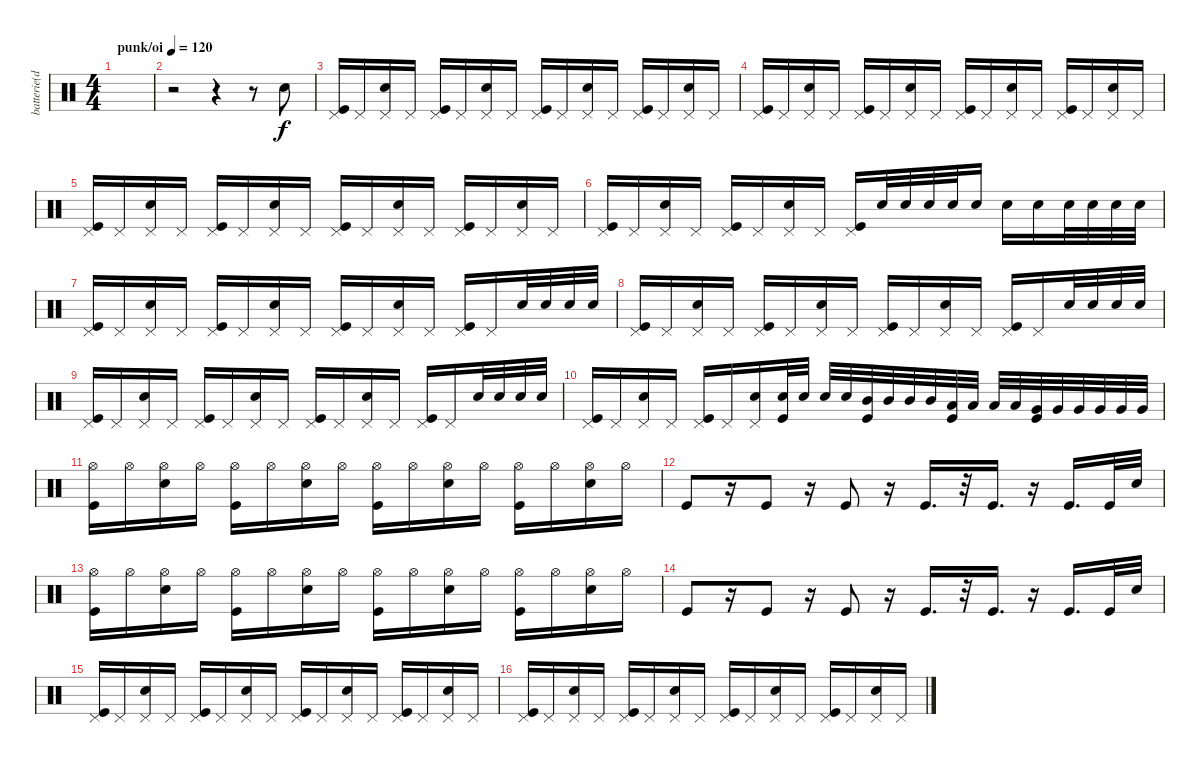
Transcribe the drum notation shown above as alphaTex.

\track ("batterie(dru)" "batterie(d") {instrument percussion}
\staff {score}
\articulation defaults
\ts (4 4)
\tempo (120 "punk/oi")
\clef neutral
\ks c
|
r.2 r.4 r.8 "Snare (hit) 2".8 |
("Pedal Hi-Hat (hit)" "Kick (hit)").16 "Pedal Hi-Hat (hit)".16 ("Pedal Hi-Hat (hit)" "Snare (hit) 2").16 "Pedal Hi-Hat (hit)".16 ("Pedal Hi-Hat (hit)" "Kick (hit)").16 "Pedal Hi-Hat (hit)".16 ("Pedal Hi-Hat (hit)" "Snare (hit) 2").16 "Pedal Hi-Hat (hit)".16 ("Pedal Hi-Hat (hit)" "Kick (hit)").16 "Pedal Hi-Hat (hit)".16 ("Pedal Hi-Hat (hit)" "Snare (hit) 2").16 "Pedal Hi-Hat (hit)".16 ("Pedal Hi-Hat (hit)" "Kick (hit)").16 "Pedal Hi-Hat (hit)".16 ("Pedal Hi-Hat (hit)" "Snare (hit) 2").16 "Pedal Hi-Hat (hit)".16 |
("Pedal Hi-Hat (hit)" "Kick (hit)").16 "Pedal Hi-Hat (hit)".16 ("Pedal Hi-Hat (hit)" "Snare (hit) 2").16 "Pedal Hi-Hat (hit)".16 ("Pedal Hi-Hat (hit)" "Kick (hit)").16 "Pedal Hi-Hat (hit)".16 ("Pedal Hi-Hat (hit)" "Snare (hit) 2").16 "Pedal Hi-Hat (hit)".16 ("Pedal Hi-Hat (hit)" "Kick (hit)").16 "Pedal Hi-Hat (hit)".16 ("Pedal Hi-Hat (hit)" "Snare (hit) 2").16 "Pedal Hi-Hat (hit)".16 ("Pedal Hi-Hat (hit)" "Kick (hit)").16 "Pedal Hi-Hat (hit)".16 ("Pedal Hi-Hat (hit)" "Snare (hit) 2").16 "Pedal Hi-Hat (hit)".16 |
("Pedal Hi-Hat (hit)" "Kick (hit)").16 "Pedal Hi-Hat (hit)".16 ("Pedal Hi-Hat (hit)" "Snare (hit) 2").16 "Pedal Hi-Hat (hit)".16 ("Pedal Hi-Hat (hit)" "Kick (hit)").16 "Pedal Hi-Hat (hit)".16 ("Pedal Hi-Hat (hit)" "Snare (hit) 2").16 "Pedal Hi-Hat (hit)".16 ("Pedal Hi-Hat (hit)" "Kick (hit)").16 "Pedal Hi-Hat (hit)".16 ("Pedal Hi-Hat (hit)" "Snare (hit) 2").16 "Pedal Hi-Hat (hit)".16 ("Pedal Hi-Hat (hit)" "Kick (hit)").16 "Pedal Hi-Hat (hit)".16 ("Pedal Hi-Hat (hit)" "Snare (hit) 2").16 "Pedal Hi-Hat (hit)".16 |
("Pedal Hi-Hat (hit)" "Kick (hit)").16 "Pedal Hi-Hat (hit)".16 ("Pedal Hi-Hat (hit)" "Snare (hit) 2").16 "Pedal Hi-Hat (hit)".16 ("Pedal Hi-Hat (hit)" "Kick (hit)").16 "Pedal Hi-Hat (hit)".16 ("Pedal Hi-Hat (hit)" "Snare (hit) 2").16 "Pedal Hi-Hat (hit)".16 ("Pedal Hi-Hat (hit)" "Kick (hit)").16 "Snare (hit) 2".32 "Snare (hit) 2".32 "Snare (hit) 2".32 "Snare (hit) 2".32 "Snare (hit) 2".16 "Snare (hit) 2".16 "Snare (hit) 2".16 "Snare (hit) 2".32 "Snare (hit) 2".32 "Snare (hit) 2".32 "Snare (hit) 2".32 |
("Pedal Hi-Hat (hit)" "Kick (hit)").16 "Pedal Hi-Hat (hit)".16 ("Pedal Hi-Hat (hit)" "Snare (hit) 2").16 "Pedal Hi-Hat (hit)".16 ("Pedal Hi-Hat (hit)" "Kick (hit)").16 "Pedal Hi-Hat (hit)".16 ("Pedal Hi-Hat (hit)" "Snare (hit) 2").16 "Pedal Hi-Hat (hit)".16 ("Pedal Hi-Hat (hit)" "Kick (hit)").16 "Pedal Hi-Hat (hit)".16 ("Pedal Hi-Hat (hit)" "Snare (hit) 2").16 "Pedal Hi-Hat (hit)".16 ("Pedal Hi-Hat (hit)" "Kick (hit)").16 "Pedal Hi-Hat (hit)".16 "Snare (hit) 2".32 "Snare (hit) 2".32 "Snare (hit) 2".32 "Snare (hit) 2".32 |
("Pedal Hi-Hat (hit)" "Kick (hit)").16 "Pedal Hi-Hat (hit)".16 ("Pedal Hi-Hat (hit)" "Snare (hit) 2").16 "Pedal Hi-Hat (hit)".16 ("Pedal Hi-Hat (hit)" "Kick (hit)").16 "Pedal Hi-Hat (hit)".16 ("Pedal Hi-Hat (hit)" "Snare (hit) 2").16 "Pedal Hi-Hat (hit)".16 ("Pedal Hi-Hat (hit)" "Kick (hit)").16 "Pedal Hi-Hat (hit)".16 ("Pedal Hi-Hat (hit)" "Snare (hit) 2").16 "Pedal Hi-Hat (hit)".16 ("Pedal Hi-Hat (hit)" "Kick (hit)").16 "Pedal Hi-Hat (hit)".16 "Snare (hit) 2".32 "Snare (hit) 2".32 "Snare (hit) 2".32 "Snare (hit) 2".32 |
("Pedal Hi-Hat (hit)" "Kick (hit)").16 "Pedal Hi-Hat (hit)".16 ("Pedal Hi-Hat (hit)" "Snare (hit) 2").16 "Pedal Hi-Hat (hit)".16 ("Pedal Hi-Hat (hit)" "Kick (hit)").16 "Pedal Hi-Hat (hit)".16 ("Pedal Hi-Hat (hit)" "Snare (hit) 2").16 "Pedal Hi-Hat (hit)".16 ("Pedal Hi-Hat (hit)" "Kick (hit)").16 "Pedal Hi-Hat (hit)".16 ("Pedal Hi-Hat (hit)" "Snare (hit) 2").16 "Pedal Hi-Hat (hit)".16 ("Pedal Hi-Hat (hit)" "Kick (hit)").16 "Pedal Hi-Hat (hit)".16 "Snare (hit) 2".32 "Snare (hit) 2".32 "Snare (hit) 2".32 "Snare (hit) 2".32 |
("Pedal Hi-Hat (hit)" "Kick (hit)").16 "Pedal Hi-Hat (hit)".16 ("Pedal Hi-Hat (hit)" "Snare (hit) 2").16 "Pedal Hi-Hat (hit)".16 ("Pedal Hi-Hat (hit)" "Kick (hit)").16 "Pedal Hi-Hat (hit)".16 ("Pedal Hi-Hat (hit)" "Snare (hit) 2").16 ("Electric Snare (hit)" "Kick (hit)").32 "Electric Snare (hit)".32 "Electric Snare (hit)".32 "Electric Snare (hit)".32 ("Mid Tom (hit)" "Kick (hit)").32 "Mid Tom (hit)".32 "Mid Tom (hit)".32 "Mid Tom (hit)".32 ("Low Tom (hit)" "Kick (hit)").32 "Low Tom (hit)".32 "Low Tom (hit)".32 "Low Tom (hit)".32 ("Very Low Tom (hit)" "Kick (hit)").32 "Very Low Tom (hit)".32 "Very Low Tom (hit)".32 "Very Low Tom (hit)".32 "Very Low Tom (hit)".32 "Very Low Tom (hit)".32 |
("Hi-Hat (open)" "Kick (hit)").16 "Hi-Hat (open)".16 ("Hi-Hat (open)" "Snare (hit) 2").16 "Hi-Hat (open)".16 ("Hi-Hat (open)" "Kick (hit)").16 "Hi-Hat (open)".16 ("Hi-Hat (open)" "Snare (hit) 2").16 "Hi-Hat (open)".16 ("Hi-Hat (open)" "Kick (hit)").16 "Hi-Hat (open)".16 ("Hi-Hat (open)" "Snare (hit) 2").16 "Hi-Hat (open)".16 ("Hi-Hat (open)" "Kick (hit)").16 "Hi-Hat (open)".16 ("Hi-Hat (open)" "Snare (hit) 2").16 "Hi-Hat (open)".16 |
"Kick (hit)".8 r.16 "Kick (hit)".8 r.16 "Kick (hit)".8 r.16 "Kick (hit)".16{d} r.32 "Kick (hit)".16{d} r.16 "Kick (hit)".16{d} "Kick (hit)".32 "Snare (hit) 2".32 |
("Hi-Hat (open)" "Kick (hit)").16 "Hi-Hat (open)".16 ("Hi-Hat (open)" "Snare (hit) 2").16 "Hi-Hat (open)".16 ("Hi-Hat (open)" "Kick (hit)").16 "Hi-Hat (open)".16 ("Hi-Hat (open)" "Snare (hit) 2").16 "Hi-Hat (open)".16 ("Hi-Hat (open)" "Kick (hit)").16 "Hi-Hat (open)".16 ("Hi-Hat (open)" "Snare (hit) 2").16 "Hi-Hat (open)".16 ("Hi-Hat (open)" "Kick (hit)").16 "Hi-Hat (open)".16 ("Hi-Hat (open)" "Snare (hit) 2").16 "Hi-Hat (open)".16 |
"Kick (hit)".8 r.16 "Kick (hit)".8 r.16 "Kick (hit)".8 r.16 "Kick (hit)".16{d} r.32 "Kick (hit)".16{d} r.16 "Kick (hit)".16{d} "Kick (hit)".32 "Snare (hit) 2".32 |
("Pedal Hi-Hat (hit)" "Kick (hit)").16 "Pedal Hi-Hat (hit)".16 ("Pedal Hi-Hat (hit)" "Snare (hit) 2").16 "Pedal Hi-Hat (hit)".16 ("Pedal Hi-Hat (hit)" "Kick (hit)").16 "Pedal Hi-Hat (hit)".16 ("Pedal Hi-Hat (hit)" "Snare (hit) 2").16 "Pedal Hi-Hat (hit)".16 ("Pedal Hi-Hat (hit)" "Kick (hit)").16 "Pedal Hi-Hat (hit)".16 ("Pedal Hi-Hat (hit)" "Snare (hit) 2").16 "Pedal Hi-Hat (hit)".16 ("Pedal Hi-Hat (hit)" "Kick (hit)").16 "Pedal Hi-Hat (hit)".16 ("Pedal Hi-Hat (hit)" "Snare (hit) 2").16 "Pedal Hi-Hat (hit)".16 |
("Pedal Hi-Hat (hit)" "Kick (hit)").16 "Pedal Hi-Hat (hit)".16 ("Pedal Hi-Hat (hit)" "Snare (hit) 2").16 "Pedal Hi-Hat (hit)".16 ("Pedal Hi-Hat (hit)" "Kick (hit)").16 "Pedal Hi-Hat (hit)".16 ("Pedal Hi-Hat (hit)" "Snare (hit) 2").16 "Pedal Hi-Hat (hit)".16 ("Pedal Hi-Hat (hit)" "Kick (hit)").16 "Pedal Hi-Hat (hit)".16 ("Pedal Hi-Hat (hit)" "Snare (hit) 2").16 "Pedal Hi-Hat (hit)".16 ("Pedal Hi-Hat (hit)" "Kick (hit)").16 "Pedal Hi-Hat (hit)".16 ("Pedal Hi-Hat (hit)" "Snare (hit) 2").16 "Pedal Hi-Hat (hit)".16
